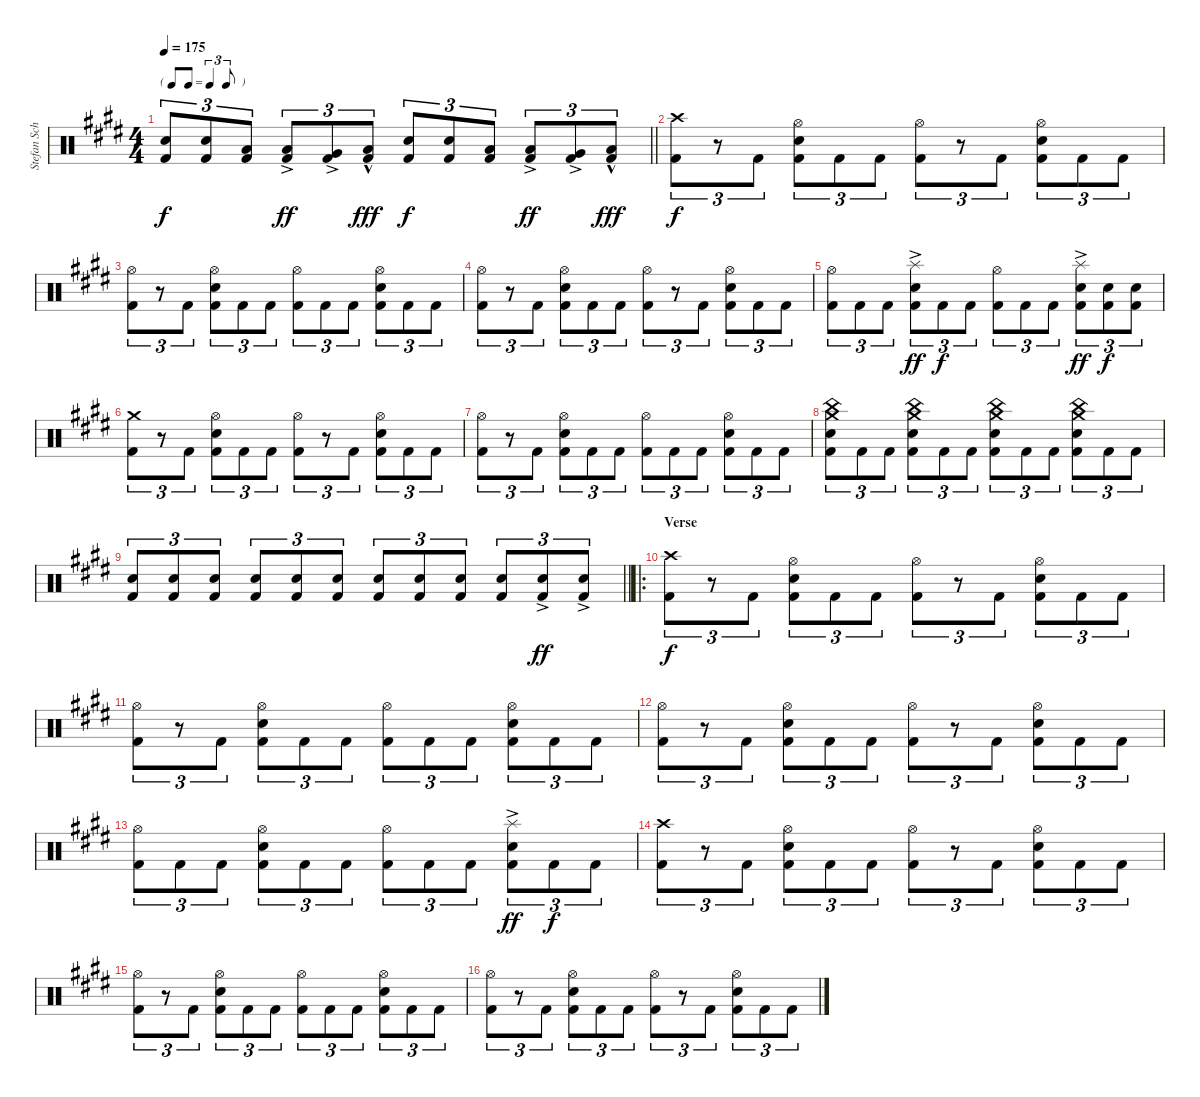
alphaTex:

\track ("Stefan Schwarzmann" "Stefan Sch") {instrument percussion}
\staff {score}
\articulation defaults
\ts (4 4)
\tf triplet8th
\tempo 175
\clef neutral
\barLineRight lightlight
\ks c#minor
("Snare (hit) 2" "Kick (hit) 2").8{tu (3 2) dy f} ("Snare (hit) 2" "Kick (hit) 2").8{tu (3 2)} ("Low Floor Tom (hit)" "Kick (hit) 2").8{tu (3 2)} ("Low Tom (hit)"{ac} "Kick (hit) 2").8{tu (3 2) dy ff} ("Very Low Tom (hit)"{ac} "Kick (hit) 2").8{tu (3 2)} ("Low Floor Tom (hit)"{hac} "Kick (hit) 2").8{tu (3 2) dy fff} ("Snare (hit) 2" "Kick (hit) 2").8{tu (3 2) dy f} ("Snare (hit) 2" "Kick (hit) 2").8{tu (3 2)} ("Low Floor Tom (hit)" "Kick (hit) 2").8{tu (3 2)} ("Low Tom (hit)"{ac} "Kick (hit) 2").8{tu (3 2) dy ff} ("Very Low Tom (hit)"{ac} "Kick (hit) 2").8{tu (3 2)} ("Low Floor Tom (hit)"{hac} "Kick (hit) 2").8{tu (3 2) dy fff} |
\section ("" "")
("Crash high (hit)" "Kick (hit) 2").8{tu (3 2) dy f} r.8{tu (3 2)} "Kick (hit) 2".8{tu (3 2)} ("Hi-Hat (open)" "Snare (hit) 2" "Kick (hit) 2").8{tu (3 2)} "Kick (hit) 2".8{tu (3 2)} "Kick (hit) 2".8{tu (3 2)} ("Hi-Hat (open)" "Kick (hit) 2").8{tu (3 2)} r.8{tu (3 2)} "Kick (hit) 2".8{tu (3 2)} ("Hi-Hat (open)" "Snare (hit) 2" "Kick (hit) 2").8{tu (3 2)} "Kick (hit) 2".8{tu (3 2)} "Kick (hit) 2".8{tu (3 2)} |
("Hi-Hat (open)" "Kick (hit) 2").8{tu (3 2)} r.8{tu (3 2)} "Kick (hit) 2".8{tu (3 2)} ("Hi-Hat (open)" "Snare (hit) 2" "Kick (hit) 2").8{tu (3 2)} "Kick (hit) 2".8{tu (3 2)} "Kick (hit) 2".8{tu (3 2)} ("Hi-Hat (open)" "Kick (hit) 2").8{tu (3 2)} "Kick (hit) 2".8{tu (3 2)} "Kick (hit) 2".8{tu (3 2)} ("Hi-Hat (open)" "Snare (hit) 2" "Kick (hit) 2").8{tu (3 2)} "Kick (hit) 2".8{tu (3 2)} "Kick (hit) 2".8{tu (3 2)} |
("Hi-Hat (open)" "Kick (hit) 2").8{tu (3 2)} r.8{tu (3 2)} "Kick (hit) 2".8{tu (3 2)} ("Hi-Hat (open)" "Snare (hit) 2" "Kick (hit) 2").8{tu (3 2)} "Kick (hit) 2".8{tu (3 2)} "Kick (hit) 2".8{tu (3 2)} ("Hi-Hat (open)" "Kick (hit) 2").8{tu (3 2)} r.8{tu (3 2)} "Kick (hit) 2".8{tu (3 2)} ("Hi-Hat (open)" "Snare (hit) 2" "Kick (hit) 2").8{tu (3 2)} "Kick (hit) 2".8{tu (3 2)} "Kick (hit) 2".8{tu (3 2)} |
("Hi-Hat (open)" "Kick (hit) 2").8{tu (3 2)} "Kick (hit) 2".8{tu (3 2)} "Kick (hit) 2".8{tu (3 2)} ("Splash (hit)"{ac} "Snare (hit) 2" "Kick (hit) 2").8{tu (3 2) dy ff} "Kick (hit) 2".8{tu (3 2) dy f} "Kick (hit) 2".8{tu (3 2)} ("Hi-Hat (open)" "Kick (hit) 2").8{tu (3 2)} "Kick (hit) 2".8{tu (3 2)} "Kick (hit) 2".8{tu (3 2)} ("Splash (hit)"{ac} "Snare (hit) 2" "Kick (hit) 2").8{tu (3 2) dy ff} ("Snare (hit) 2" "Kick (hit) 2").8{tu (3 2) dy f} ("Snare (hit) 2" "Kick (hit) 2").8{tu (3 2)} |
("Crash medium (hit)" "Kick (hit) 2").8{tu (3 2)} r.8{tu (3 2)} "Kick (hit) 2".8{tu (3 2)} ("Hi-Hat (open)" "Snare (hit) 2" "Kick (hit) 2").8{tu (3 2)} "Kick (hit) 2".8{tu (3 2)} "Kick (hit) 2".8{tu (3 2)} ("Hi-Hat (open)" "Kick (hit) 2").8{tu (3 2)} r.8{tu (3 2)} "Kick (hit) 2".8{tu (3 2)} ("Hi-Hat (open)" "Snare (hit) 2" "Kick (hit) 2").8{tu (3 2)} "Kick (hit) 2".8{tu (3 2)} "Kick (hit) 2".8{tu (3 2)} |
("Hi-Hat (open)" "Kick (hit) 2").8{tu (3 2)} r.8{tu (3 2)} "Kick (hit) 2".8{tu (3 2)} ("Hi-Hat (open)" "Snare (hit) 2" "Kick (hit) 2").8{tu (3 2)} "Kick (hit) 2".8{tu (3 2)} "Kick (hit) 2".8{tu (3 2)} ("Hi-Hat (open)" "Kick (hit) 2").8{tu (3 2)} "Kick (hit) 2".8{tu (3 2)} "Kick (hit) 2".8{tu (3 2)} ("Hi-Hat (open)" "Snare (hit) 2" "Kick (hit) 2").8{tu (3 2)} "Kick (hit) 2".8{tu (3 2)} "Kick (hit) 2".8{tu (3 2)} |
("Crash medium (hit)" "China (hit)" "Snare (hit) 2" "Kick (hit) 2").8{tu (3 2)} "Kick (hit) 2".8{tu (3 2)} "Kick (hit) 2".8{tu (3 2)} ("Crash medium (hit)" "China (hit)" "Snare (hit) 2" "Kick (hit) 2").8{tu (3 2)} "Kick (hit) 2".8{tu (3 2)} "Kick (hit) 2".8{tu (3 2)} ("Crash medium (hit)" "China (hit)" "Snare (hit) 2" "Kick (hit) 2").8{tu (3 2)} "Kick (hit) 2".8{tu (3 2)} "Kick (hit) 2".8{tu (3 2)} ("Crash medium (hit)" "China (hit)" "Snare (hit) 2" "Kick (hit) 2").8{tu (3 2) volume 8} "Kick (hit) 2".8{tu (3 2)} "Kick (hit) 2".8{tu (3 2)} |
\barLineRight lightlight
("Snare (hit) 2" "Kick (hit) 2").8{tu (3 2) volume 13} ("Snare (hit) 2" "Kick (hit) 2").8{tu (3 2)} ("Snare (hit) 2" "Kick (hit) 2").8{tu (3 2)} ("Snare (hit) 2" "Kick (hit) 2").8{tu (3 2)} ("Snare (hit) 2" "Kick (hit) 2").8{tu (3 2)} ("Snare (hit) 2" "Kick (hit) 2").8{tu (3 2)} ("Snare (hit) 2" "Kick (hit) 2").8{tu (3 2)} ("Snare (hit) 2" "Kick (hit) 2").8{tu (3 2)} ("Snare (hit) 2" "Kick (hit) 2").8{tu (3 2)} ("Snare (hit) 2" "Kick (hit) 2").8{tu (3 2)} ("Snare (hit) 2"{ac} "Kick (hit) 2"{ac}).8{tu (3 2) dy ff} ("Snare (hit) 2"{ac} "Kick (hit) 2"{ac}).8{tu (3 2)} |
\ro
\section ("" "Verse")
("Crash high (hit)" "Kick (hit) 2").8{tu (3 2) dy f} r.8{tu (3 2)} "Kick (hit) 2".8{tu (3 2)} ("Hi-Hat (open)" "Snare (hit) 2" "Kick (hit) 2").8{tu (3 2)} "Kick (hit) 2".8{tu (3 2)} "Kick (hit) 2".8{tu (3 2)} ("Hi-Hat (open)" "Kick (hit) 2").8{tu (3 2)} r.8{tu (3 2)} "Kick (hit) 2".8{tu (3 2)} ("Hi-Hat (open)" "Snare (hit) 2" "Kick (hit) 2").8{tu (3 2)} "Kick (hit) 2".8{tu (3 2)} "Kick (hit) 2".8{tu (3 2)} |
("Hi-Hat (open)" "Kick (hit) 2").8{tu (3 2)} r.8{tu (3 2)} "Kick (hit) 2".8{tu (3 2)} ("Hi-Hat (open)" "Snare (hit) 2" "Kick (hit) 2").8{tu (3 2)} "Kick (hit) 2".8{tu (3 2)} "Kick (hit) 2".8{tu (3 2)} ("Hi-Hat (open)" "Kick (hit) 2").8{tu (3 2)} "Kick (hit) 2".8{tu (3 2)} "Kick (hit) 2".8{tu (3 2)} ("Hi-Hat (open)" "Snare (hit) 2" "Kick (hit) 2").8{tu (3 2)} "Kick (hit) 2".8{tu (3 2)} "Kick (hit) 2".8{tu (3 2)} |
("Hi-Hat (open)" "Kick (hit) 2").8{tu (3 2)} r.8{tu (3 2)} "Kick (hit) 2".8{tu (3 2)} ("Hi-Hat (open)" "Snare (hit) 2" "Kick (hit) 2").8{tu (3 2)} "Kick (hit) 2".8{tu (3 2)} "Kick (hit) 2".8{tu (3 2)} ("Hi-Hat (open)" "Kick (hit) 2").8{tu (3 2)} r.8{tu (3 2)} "Kick (hit) 2".8{tu (3 2)} ("Hi-Hat (open)" "Snare (hit) 2" "Kick (hit) 2").8{tu (3 2)} "Kick (hit) 2".8{tu (3 2)} "Kick (hit) 2".8{tu (3 2)} |
("Hi-Hat (open)" "Kick (hit) 2").8{tu (3 2)} "Kick (hit) 2".8{tu (3 2)} "Kick (hit) 2".8{tu (3 2)} ("Hi-Hat (open)" "Snare (hit) 2" "Kick (hit) 2").8{tu (3 2)} "Kick (hit) 2".8{tu (3 2)} "Kick (hit) 2".8{tu (3 2)} ("Hi-Hat (open)" "Kick (hit) 2").8{tu (3 2)} "Kick (hit) 2".8{tu (3 2)} "Kick (hit) 2".8{tu (3 2)} ("Splash (hit)"{ac} "Snare (hit) 2" "Kick (hit) 2").8{tu (3 2) dy ff} "Kick (hit) 2".8{tu (3 2) dy f} "Kick (hit) 2".8{tu (3 2)} |
("Crash high (hit)" "Kick (hit) 2").8{tu (3 2)} r.8{tu (3 2)} "Kick (hit) 2".8{tu (3 2)} ("Hi-Hat (open)" "Snare (hit) 2" "Kick (hit) 2").8{tu (3 2)} "Kick (hit) 2".8{tu (3 2)} "Kick (hit) 2".8{tu (3 2)} ("Hi-Hat (open)" "Kick (hit) 2").8{tu (3 2)} r.8{tu (3 2)} "Kick (hit) 2".8{tu (3 2)} ("Hi-Hat (open)" "Snare (hit) 2" "Kick (hit) 2").8{tu (3 2)} "Kick (hit) 2".8{tu (3 2)} "Kick (hit) 2".8{tu (3 2)} |
("Hi-Hat (open)" "Kick (hit) 2").8{tu (3 2)} r.8{tu (3 2)} "Kick (hit) 2".8{tu (3 2)} ("Hi-Hat (open)" "Snare (hit) 2" "Kick (hit) 2").8{tu (3 2)} "Kick (hit) 2".8{tu (3 2)} "Kick (hit) 2".8{tu (3 2)} ("Hi-Hat (open)" "Kick (hit) 2").8{tu (3 2)} "Kick (hit) 2".8{tu (3 2)} "Kick (hit) 2".8{tu (3 2)} ("Hi-Hat (open)" "Snare (hit) 2" "Kick (hit) 2").8{tu (3 2)} "Kick (hit) 2".8{tu (3 2)} "Kick (hit) 2".8{tu (3 2)} |
("Hi-Hat (open)" "Kick (hit) 2").8{tu (3 2)} r.8{tu (3 2)} "Kick (hit) 2".8{tu (3 2)} ("Hi-Hat (open)" "Snare (hit) 2" "Kick (hit) 2").8{tu (3 2)} "Kick (hit) 2".8{tu (3 2)} "Kick (hit) 2".8{tu (3 2)} ("Hi-Hat (open)" "Kick (hit) 2").8{tu (3 2)} r.8{tu (3 2)} "Kick (hit) 2".8{tu (3 2)} ("Hi-Hat (open)" "Snare (hit) 2" "Kick (hit) 2").8{tu (3 2)} "Kick (hit) 2".8{tu (3 2)} "Kick (hit) 2".8{tu (3 2)}
